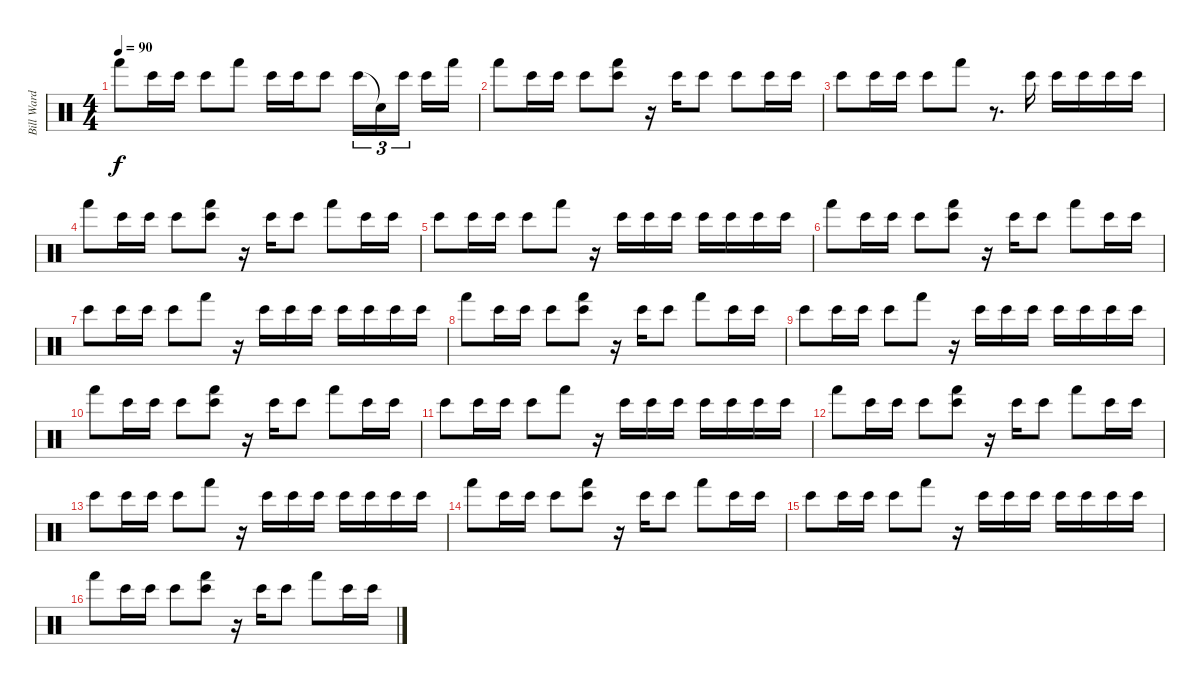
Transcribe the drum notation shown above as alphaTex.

\track ("Bill Ward" "Bill Ward") {instrument percussion}
\staff {score}
\articulation defaults
\ts (4 4)
\tempo 90
\clef neutral
\ks c "Hand (hit)".8{dy f} "Bongo High (hit)".16 "Bongo High (hit)".16 "Bongo High (hit)".8 "Hand (hit)".8 "Bongo High (hit)".16 "Bongo High (hit)".16 "Bongo High (hit)".8 "Bongo High (hit)".16{tu (3 2)} "Snare (hit)"{t}.16{tu (3 2)} "Bongo High (hit)".16{tu (3 2)} "Bongo High (hit)".16 "Hand (hit)".16
|
"Hand (hit)".8 "Bongo High (hit)".16 "Bongo High (hit)".16 "Bongo High (hit)".8 ("Bongo High (hit)" "Hand (hit)").8 r.16 "Bongo High (hit)".16 "Bongo High (hit)".8 "Bongo High (hit)".8 "Bongo High (hit)".16 "Bongo High (hit)".16 |
"Bongo High (hit)".8 "Bongo High (hit)".16 "Bongo High (hit)".16 "Bongo High (hit)".8 "Hand (hit)".8 r.8{d} "Bongo High (hit)".16 "Bongo High (hit)".16 "Bongo High (hit)".16 "Bongo High (hit)".16 "Bongo High (hit)".16 |
"Hand (hit)".8 "Bongo High (hit)".16 "Bongo High (hit)".16 "Bongo High (hit)".8 ("Bongo High (hit)" "Hand (hit)").8 r.16 "Bongo High (hit)".16 "Bongo High (hit)".8 "Hand (hit)".8 "Bongo High (hit)".16 "Bongo High (hit)".16 |
"Bongo High (hit)".8 "Bongo High (hit)".16 "Bongo High (hit)".16 "Bongo High (hit)".8 "Hand (hit)".8 r.16 "Bongo High (hit)".16 "Bongo High (hit)".16 "Bongo High (hit)".16 "Bongo High (hit)".16 "Bongo High (hit)".16 "Bongo High (hit)".16 "Bongo High (hit)".16 |
"Hand (hit)".8 "Bongo High (hit)".16 "Bongo High (hit)".16 "Bongo High (hit)".8 ("Bongo High (hit)" "Hand (hit)").8 r.16 "Bongo High (hit)".16 "Bongo High (hit)".8 "Hand (hit)".8 "Bongo High (hit)".16 "Bongo High (hit)".16 |
"Bongo High (hit)".8 "Bongo High (hit)".16 "Bongo High (hit)".16 "Bongo High (hit)".8 "Hand (hit)".8 r.16 "Bongo High (hit)".16 "Bongo High (hit)".16 "Bongo High (hit)".16 "Bongo High (hit)".16 "Bongo High (hit)".16 "Bongo High (hit)".16 "Bongo High (hit)".16 |
"Hand (hit)".8 "Bongo High (hit)".16 "Bongo High (hit)".16 "Bongo High (hit)".8 ("Bongo High (hit)" "Hand (hit)").8 r.16 "Bongo High (hit)".16 "Bongo High (hit)".8 "Hand (hit)".8 "Bongo High (hit)".16 "Bongo High (hit)".16 |
"Bongo High (hit)".8 "Bongo High (hit)".16 "Bongo High (hit)".16 "Bongo High (hit)".8 "Hand (hit)".8 r.16 "Bongo High (hit)".16 "Bongo High (hit)".16 "Bongo High (hit)".16 "Bongo High (hit)".16 "Bongo High (hit)".16 "Bongo High (hit)".16 "Bongo High (hit)".16 |
"Hand (hit)".8 "Bongo High (hit)".16 "Bongo High (hit)".16 "Bongo High (hit)".8 ("Bongo High (hit)" "Hand (hit)").8 r.16 "Bongo High (hit)".16 "Bongo High (hit)".8 "Hand (hit)".8 "Bongo High (hit)".16 "Bongo High (hit)".16 |
"Bongo High (hit)".8 "Bongo High (hit)".16 "Bongo High (hit)".16 "Bongo High (hit)".8 "Hand (hit)".8 r.16 "Bongo High (hit)".16 "Bongo High (hit)".16 "Bongo High (hit)".16 "Bongo High (hit)".16 "Bongo High (hit)".16 "Bongo High (hit)".16 "Bongo High (hit)".16 |
"Hand (hit)".8 "Bongo High (hit)".16 "Bongo High (hit)".16 "Bongo High (hit)".8 ("Bongo High (hit)" "Hand (hit)").8 r.16 "Bongo High (hit)".16 "Bongo High (hit)".8 "Hand (hit)".8 "Bongo High (hit)".16 "Bongo High (hit)".16 |
"Bongo High (hit)".8{volume 0} "Bongo High (hit)".16 "Bongo High (hit)".16 "Bongo High (hit)".8 "Hand (hit)".8 r.16 "Bongo High (hit)".16 "Bongo High (hit)".16 "Bongo High (hit)".16 "Bongo High (hit)".16 "Bongo High (hit)".16 "Bongo High (hit)".16 "Bongo High (hit)".16 |
"Hand (hit)".8 "Bongo High (hit)".16 "Bongo High (hit)".16 "Bongo High (hit)".8 ("Bongo High (hit)" "Hand (hit)").8 r.16 "Bongo High (hit)".16 "Bongo High (hit)".8 "Hand (hit)".8 "Bongo High (hit)".16 "Bongo High (hit)".16 |
"Bongo High (hit)".8 "Bongo High (hit)".16 "Bongo High (hit)".16 "Bongo High (hit)".8 "Hand (hit)".8 r.16 "Bongo High (hit)".16 "Bongo High (hit)".16 "Bongo High (hit)".16 "Bongo High (hit)".16 "Bongo High (hit)".16 "Bongo High (hit)".16 "Bongo High (hit)".16 |
"Hand (hit)".8 "Bongo High (hit)".16 "Bongo High (hit)".16 "Bongo High (hit)".8 ("Bongo High (hit)" "Hand (hit)").8 r.16 "Bongo High (hit)".16 "Bongo High (hit)".8 "Hand (hit)".8 "Bongo High (hit)".16 "Bongo High (hit)".16
